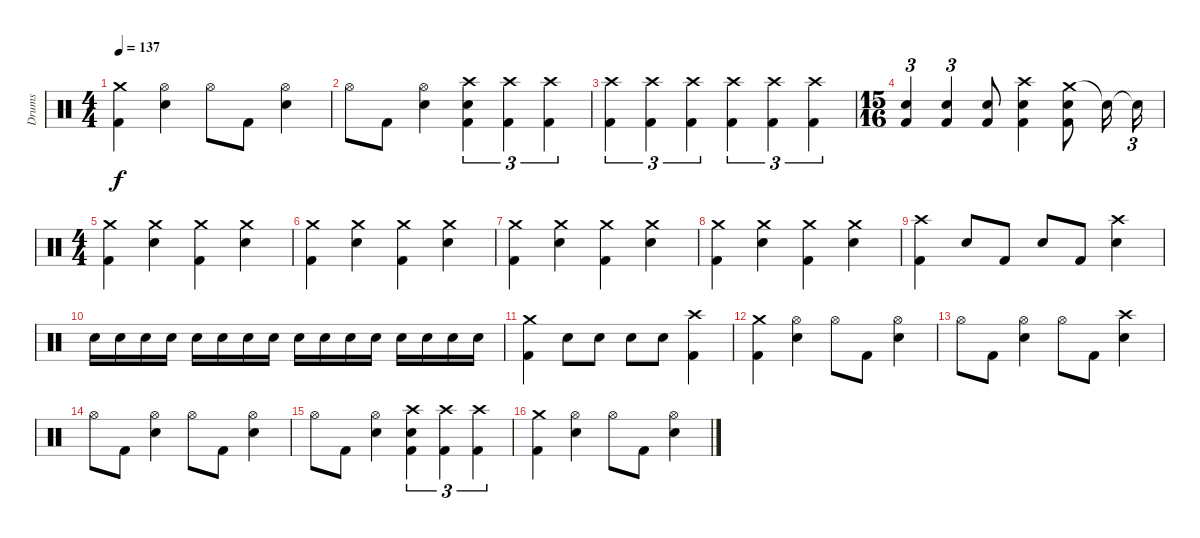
\track ("Drums" "Drums") {instrument percussion}
\staff {score}
\articulation defaults
\ts (4 4)
\tempo 137
\clef neutral
\ks c
("Crash medium (hit)" "Kick (hit) 2").4{dy f} ("Hi-Hat (open)" "Snare (hit) 2").4 "Hi-Hat (open)".8 "Kick (hit) 2".8 ("Hi-Hat (open)" "Snare (hit) 2").4 |
"Hi-Hat (open)".8 "Kick (hit) 2".8 ("Hi-Hat (open)" "Snare (hit) 2").4 ("Crash high (hit)" "Snare (hit) 2" "Kick (hit) 2").4{tu (3 2)} ("Crash high (hit)" "Kick (hit) 2").4{tu (3 2)} ("Crash high (hit)" "Kick (hit) 2").4{tu (3 2)} |
("Crash high (hit)" "Kick (hit) 2").4{tu (3 2)} ("Crash high (hit)" "Kick (hit) 2").4{tu (3 2)} ("Crash high (hit)" "Kick (hit) 2").4{tu (3 2)} ("Crash high (hit)" "Kick (hit) 2").4{tu (3 2)} ("Crash high (hit)" "Kick (hit) 2").4{tu (3 2)} ("Crash high (hit)" "Kick (hit) 2").4{tu (3 2)} |
\ts (15 16)
("Snare (hit) 2" "Kick (hit) 2").4{tu (3 2)} ("Snare (hit) 2" "Kick (hit) 2").4{tu (3 2)} ("Snare (hit) 2" "Kick (hit) 2").8 ("Crash high (hit)" "Snare (hit) 2" "Kick (hit) 2").4 ("Crash medium (hit)" "Snare (hit) 2" "Kick (hit) 2").8 "Snare (hit)"{t}.16 "Snare (hit)"{t}.16{tu (3 2)} |
\ts (4 4)
("Crash medium (hit)" "Kick (hit) 2").4 ("Crash medium (hit)" "Snare (hit) 2").4 ("Crash medium (hit)" "Kick (hit) 2").4 ("Crash medium (hit)" "Snare (hit) 2").4 |
("Crash medium (hit)" "Kick (hit) 2").4 ("Crash medium (hit)" "Snare (hit) 2").4 ("Crash medium (hit)" "Kick (hit) 2").4 ("Crash medium (hit)" "Snare (hit) 2").4 |
("Crash medium (hit)" "Kick (hit) 2").4 ("Crash medium (hit)" "Snare (hit) 2").4 ("Crash medium (hit)" "Kick (hit) 2").4 ("Crash medium (hit)" "Snare (hit) 2").4 |
("Crash medium (hit)" "Kick (hit) 2").4 ("Crash medium (hit)" "Snare (hit) 2").4 ("Crash medium (hit)" "Kick (hit) 2").4 ("Crash medium (hit)" "Snare (hit) 2").4 |
("Crash high (hit)" "Kick (hit) 2").4 "Snare (hit) 2".8 "Kick (hit) 2".8 "Snare (hit) 2".8 "Kick (hit) 2".8 ("Crash high (hit)" "Snare (hit) 2").4 |
"Snare (hit) 2".16 "Snare (hit) 2".16 "Snare (hit) 2".16 "Snare (hit) 2".16 "Snare (hit) 2".16 "Snare (hit) 2".16 "Snare (hit) 2".16 "Snare (hit) 2".16 "Snare (hit) 2".16 "Snare (hit) 2".16 "Snare (hit) 2".16 "Snare (hit) 2".16 "Snare (hit) 2".16 "Snare (hit) 2".16 "Snare (hit) 2".16 "Snare (hit) 2".16 |
("Crash medium (hit)" "Kick (hit) 2").4 "Snare (hit) 2".8 "Snare (hit) 2".8 "Snare (hit) 2".8 "Snare (hit) 2".8 ("Crash high (hit)" "Kick (hit) 2").4 |
("Crash medium (hit)" "Kick (hit) 2").4 ("Hi-Hat (open)" "Snare (hit) 2").4 "Hi-Hat (open)".8 "Kick (hit) 2".8 ("Hi-Hat (open)" "Snare (hit) 2").4 |
"Hi-Hat (open)".8 "Kick (hit) 2".8 ("Hi-Hat (open)" "Snare (hit) 2").4 "Hi-Hat (open)".8 "Kick (hit) 2".8 ("Crash high (hit)" "Snare (hit) 2").4 |
"Hi-Hat (open)".8 "Kick (hit) 2".8 ("Hi-Hat (open)" "Snare (hit) 2").4 "Hi-Hat (open)".8 "Kick (hit) 2".8 ("Hi-Hat (open)" "Snare (hit) 2").4 |
"Hi-Hat (open)".8 "Kick (hit) 2".8 ("Hi-Hat (open)" "Snare (hit) 2").4 ("Crash high (hit)" "Snare (hit) 2" "Kick (hit) 2").4{tu (3 2)} ("Crash high (hit)" "Kick (hit) 2").4{tu (3 2)} ("Crash high (hit)" "Kick (hit) 2").4{tu (3 2)} |
("Crash medium (hit)" "Kick (hit) 2").4 ("Hi-Hat (open)" "Snare (hit) 2").4 "Hi-Hat (open)".8 "Kick (hit) 2".8 ("Hi-Hat (open)" "Snare (hit) 2").4
